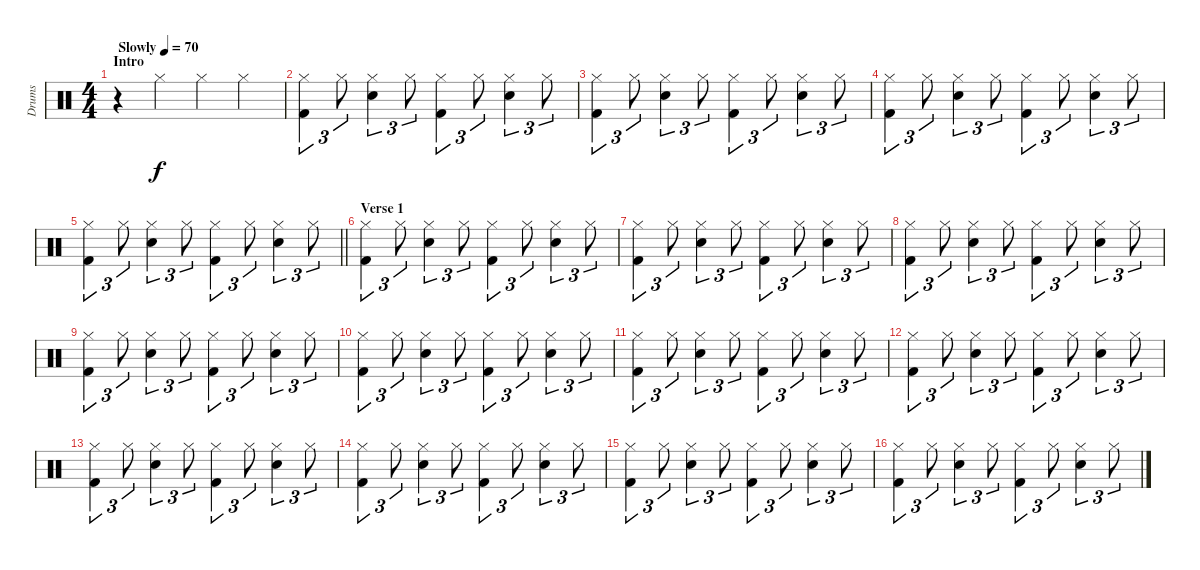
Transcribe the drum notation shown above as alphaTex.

\track ("Drums" "Drums") {instrument percussion}
\staff {score}
\articulation defaults
\ts (4 4)
\section ("" "Intro")
\tempo (70 "Slowly")
\clef neutral
\ks c
r.4{dy f} "Hi-Hat (closed)".4 "Hi-Hat (closed)".4 "Hi-Hat (closed)".4 |
("Hi-Hat (closed)" "Kick (hit) 2").4{tu (3 2)} "Hi-Hat (closed)".8{tu (3 2)} ("Hi-Hat (closed)" "Snare (hit) 2").4{tu (3 2)} "Hi-Hat (closed)".8{tu (3 2)} ("Hi-Hat (closed)" "Kick (hit) 2").4{tu (3 2)} "Hi-Hat (closed)".8{tu (3 2)} ("Hi-Hat (closed)" "Snare (hit) 2").4{tu (3 2)} "Hi-Hat (closed)".8{tu (3 2)} |
("Hi-Hat (closed)" "Kick (hit) 2").4{tu (3 2)} "Hi-Hat (closed)".8{tu (3 2)} ("Hi-Hat (closed)" "Snare (hit) 2").4{tu (3 2)} "Hi-Hat (closed)".8{tu (3 2)} ("Hi-Hat (closed)" "Kick (hit) 2").4{tu (3 2)} "Hi-Hat (closed)".8{tu (3 2)} ("Hi-Hat (closed)" "Snare (hit) 2").4{tu (3 2)} "Hi-Hat (closed)".8{tu (3 2)} |
("Hi-Hat (closed)" "Kick (hit) 2").4{tu (3 2)} "Hi-Hat (closed)".8{tu (3 2)} ("Hi-Hat (closed)" "Snare (hit) 2").4{tu (3 2)} "Hi-Hat (closed)".8{tu (3 2)} ("Hi-Hat (closed)" "Kick (hit) 2").4{tu (3 2)} "Hi-Hat (closed)".8{tu (3 2)} ("Hi-Hat (closed)" "Snare (hit) 2").4{tu (3 2)} "Hi-Hat (closed)".8{tu (3 2)} |
\barLineRight lightlight
("Hi-Hat (closed)" "Kick (hit) 2").4{tu (3 2)} "Hi-Hat (closed)".8{tu (3 2)} ("Hi-Hat (closed)" "Snare (hit) 2").4{tu (3 2)} "Hi-Hat (closed)".8{tu (3 2)} ("Hi-Hat (closed)" "Kick (hit) 2").4{tu (3 2)} "Hi-Hat (closed)".8{tu (3 2)} ("Hi-Hat (closed)" "Snare (hit) 2").4{tu (3 2)} "Hi-Hat (closed)".8{tu (3 2)} |
\section ("" "Verse 1")
("Hi-Hat (closed)" "Kick (hit) 2").4{tu (3 2)} "Hi-Hat (closed)".8{tu (3 2)} ("Hi-Hat (closed)" "Snare (hit) 2").4{tu (3 2)} "Hi-Hat (closed)".8{tu (3 2)} ("Hi-Hat (closed)" "Kick (hit) 2").4{tu (3 2)} "Hi-Hat (closed)".8{tu (3 2)} ("Hi-Hat (closed)" "Snare (hit) 2").4{tu (3 2)} "Hi-Hat (closed)".8{tu (3 2)} |
("Hi-Hat (closed)" "Kick (hit) 2").4{tu (3 2)} "Hi-Hat (closed)".8{tu (3 2)} ("Hi-Hat (closed)" "Snare (hit) 2").4{tu (3 2)} "Hi-Hat (closed)".8{tu (3 2)} ("Hi-Hat (closed)" "Kick (hit) 2").4{tu (3 2)} "Hi-Hat (closed)".8{tu (3 2)} ("Hi-Hat (closed)" "Snare (hit) 2").4{tu (3 2)} "Hi-Hat (closed)".8{tu (3 2)} |
("Hi-Hat (closed)" "Kick (hit) 2").4{tu (3 2)} "Hi-Hat (closed)".8{tu (3 2)} ("Hi-Hat (closed)" "Snare (hit) 2").4{tu (3 2)} "Hi-Hat (closed)".8{tu (3 2)} ("Hi-Hat (closed)" "Kick (hit) 2").4{tu (3 2)} "Hi-Hat (closed)".8{tu (3 2)} ("Hi-Hat (closed)" "Snare (hit) 2").4{tu (3 2)} "Hi-Hat (closed)".8{tu (3 2)} |
("Hi-Hat (closed)" "Kick (hit) 2").4{tu (3 2)} "Hi-Hat (closed)".8{tu (3 2)} ("Hi-Hat (closed)" "Snare (hit) 2").4{tu (3 2)} "Hi-Hat (closed)".8{tu (3 2)} ("Hi-Hat (closed)" "Kick (hit) 2").4{tu (3 2)} "Hi-Hat (closed)".8{tu (3 2)} ("Hi-Hat (closed)" "Snare (hit) 2").4{tu (3 2)} "Hi-Hat (closed)".8{tu (3 2)} |
("Hi-Hat (closed)" "Kick (hit) 2").4{tu (3 2)} "Hi-Hat (closed)".8{tu (3 2)} ("Hi-Hat (closed)" "Snare (hit) 2").4{tu (3 2)} "Hi-Hat (closed)".8{tu (3 2)} ("Hi-Hat (closed)" "Kick (hit) 2").4{tu (3 2)} "Hi-Hat (closed)".8{tu (3 2)} ("Hi-Hat (closed)" "Snare (hit) 2").4{tu (3 2)} "Hi-Hat (closed)".8{tu (3 2)} |
("Hi-Hat (closed)" "Kick (hit) 2").4{tu (3 2)} "Hi-Hat (closed)".8{tu (3 2)} ("Hi-Hat (closed)" "Snare (hit) 2").4{tu (3 2)} "Hi-Hat (closed)".8{tu (3 2)} ("Hi-Hat (closed)" "Kick (hit) 2").4{tu (3 2)} "Hi-Hat (closed)".8{tu (3 2)} ("Hi-Hat (closed)" "Snare (hit) 2").4{tu (3 2)} "Hi-Hat (closed)".8{tu (3 2)} |
("Hi-Hat (closed)" "Kick (hit) 2").4{tu (3 2)} "Hi-Hat (closed)".8{tu (3 2)} ("Hi-Hat (closed)" "Snare (hit) 2").4{tu (3 2)} "Hi-Hat (closed)".8{tu (3 2)} ("Hi-Hat (closed)" "Kick (hit) 2").4{tu (3 2)} "Hi-Hat (closed)".8{tu (3 2)} ("Hi-Hat (closed)" "Snare (hit) 2").4{tu (3 2)} "Hi-Hat (closed)".8{tu (3 2)} |
("Hi-Hat (closed)" "Kick (hit) 2").4{tu (3 2)} "Hi-Hat (closed)".8{tu (3 2)} ("Hi-Hat (closed)" "Snare (hit) 2").4{tu (3 2)} "Hi-Hat (closed)".8{tu (3 2)} ("Hi-Hat (closed)" "Kick (hit) 2").4{tu (3 2)} "Hi-Hat (closed)".8{tu (3 2)} ("Hi-Hat (closed)" "Snare (hit) 2").4{tu (3 2)} "Hi-Hat (closed)".8{tu (3 2)} |
("Hi-Hat (closed)" "Kick (hit) 2").4{tu (3 2)} "Hi-Hat (closed)".8{tu (3 2)} ("Hi-Hat (closed)" "Snare (hit) 2").4{tu (3 2)} "Hi-Hat (closed)".8{tu (3 2)} ("Hi-Hat (closed)" "Kick (hit) 2").4{tu (3 2)} "Hi-Hat (closed)".8{tu (3 2)} ("Hi-Hat (closed)" "Snare (hit) 2").4{tu (3 2)} "Hi-Hat (closed)".8{tu (3 2)} |
("Hi-Hat (closed)" "Kick (hit) 2").4{tu (3 2)} "Hi-Hat (closed)".8{tu (3 2)} ("Hi-Hat (closed)" "Snare (hit) 2").4{tu (3 2)} "Hi-Hat (closed)".8{tu (3 2)} ("Hi-Hat (closed)" "Kick (hit) 2").4{tu (3 2)} "Hi-Hat (closed)".8{tu (3 2)} ("Hi-Hat (closed)" "Snare (hit) 2").4{tu (3 2)} "Hi-Hat (closed)".8{tu (3 2)} |
("Hi-Hat (closed)" "Kick (hit) 2").4{tu (3 2)} "Hi-Hat (closed)".8{tu (3 2)} ("Hi-Hat (closed)" "Snare (hit) 2").4{tu (3 2)} "Hi-Hat (closed)".8{tu (3 2)} ("Hi-Hat (closed)" "Kick (hit) 2").4{tu (3 2)} "Hi-Hat (closed)".8{tu (3 2)} ("Hi-Hat (closed)" "Snare (hit) 2").4{tu (3 2)} "Hi-Hat (closed)".8{tu (3 2)}
